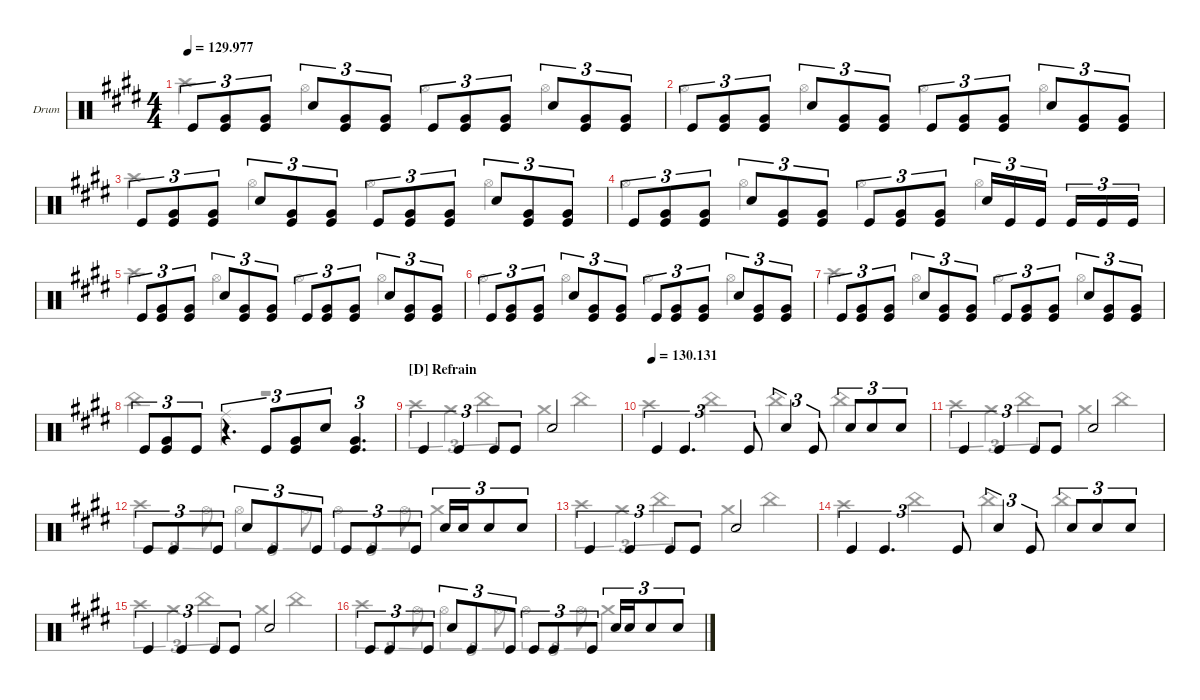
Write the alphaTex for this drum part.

\defaultSystemsLayout 4
\hideDynamics
\bracketExtendMode nobrackets
\firstSystemTrackNameOrientation horizontal
\otherSystemsTrackNameOrientation horizontal
\track ("BATTERIE" "Drum") {defaultSystemsLayout 4 instrument percussion}
\staff {score}
\articulation defaults
\voice
\ts (4 4)
\tempo
129.977
\accidentals auto
\clef neutral
\ottava regular
\simile none
\ks e "Kick (hit)".8{tu (3 2) dy mf}
("Kick (hit)" "Very Low Tom (hit)").8{tu (3 2)} ("Kick (hit)" "Very Low Tom (hit)").8{tu (3 2)} "Snare (hit) 2".8{tu (3 2)} ("Kick (hit)" "Very Low Tom (hit)").8{tu (3 2)} ("Kick (hit)" "Very Low Tom (hit)").8{tu (3 2)} "Kick (hit)".8{tu (3 2)} ("Kick (hit)" "Very Low Tom (hit)").8{tu (3 2)} ("Kick (hit)" "Very Low Tom (hit)").8{tu (3 2)} "Snare (hit) 2".8{tu (3 2)} ("Kick (hit)" "Very Low Tom (hit)").8{tu (3 2)} ("Kick (hit)" "Very Low Tom (hit)").8{tu (3 2)} |
"Kick (hit)".8{tu (3 2)} ("Kick (hit)" "Very Low Tom (hit)").8{tu (3 2)} ("Kick (hit)" "Very Low Tom (hit)").8{tu (3 2)} "Snare (hit) 2".8{tu (3 2)} ("Kick (hit)" "Very Low Tom (hit)").8{tu (3 2)} ("Kick (hit)" "Very Low Tom (hit)").8{tu (3 2)} "Kick (hit)".8{tu (3 2)} ("Kick (hit)" "Very Low Tom (hit)").8{tu (3 2)} ("Kick (hit)" "Very Low Tom (hit)").8{tu (3 2)} "Snare (hit) 2".8{tu (3 2)} ("Kick (hit)" "Very Low Tom (hit)").8{tu (3 2)} ("Kick (hit)" "Very Low Tom (hit)").8{tu (3 2)} |
"Kick (hit)".8{tu (3 2)} ("Kick (hit)" "Very Low Tom (hit)").8{tu (3 2)} ("Kick (hit)" "Very Low Tom (hit)").8{tu (3 2)} "Snare (hit) 2".8{tu (3 2)} ("Kick (hit)" "Very Low Tom (hit)").8{tu (3 2)} ("Kick (hit)" "Very Low Tom (hit)").8{tu (3 2)} "Kick (hit)".8{tu (3 2)} ("Kick (hit)" "Very Low Tom (hit)").8{tu (3 2)} ("Kick (hit)" "Very Low Tom (hit)").8{tu (3 2)} "Snare (hit) 2".8{tu (3 2)} ("Kick (hit)" "Very Low Tom (hit)").8{tu (3 2)} ("Kick (hit)" "Very Low Tom (hit)").8{tu (3 2)} |
"Kick (hit)".8{tu (3 2)} ("Kick (hit)" "Very Low Tom (hit)").8{tu (3 2)} ("Kick (hit)" "Very Low Tom (hit)").8{tu (3 2)} "Snare (hit) 2".8{tu (3 2)} ("Kick (hit)" "Very Low Tom (hit)").8{tu (3 2)} ("Kick (hit)" "Very Low Tom (hit)").8{tu (3 2)} "Kick (hit)".8{tu (3 2)} ("Kick (hit)" "Very Low Tom (hit)").8{tu (3 2)} ("Kick (hit)" "Very Low Tom (hit)").8{tu (3 2)} "Snare (hit) 2".16{tu (3 2)} "Kick (hit)".16{tu (3 2)} "Kick (hit)".16{tu (3 2)} "Kick (hit)".16{tu (3 2)} "Kick (hit)".16{tu (3 2)} "Kick (hit)".16{tu (3 2)} |
"Kick (hit)".8{tu (3 2)} ("Kick (hit)" "Very Low Tom (hit)").8{tu (3 2)} ("Kick (hit)" "Very Low Tom (hit)").8{tu (3 2)} "Snare (hit) 2".8{tu (3 2)} ("Kick (hit)" "Very Low Tom (hit)").8{tu (3 2)} ("Kick (hit)" "Very Low Tom (hit)").8{tu (3 2)} "Kick (hit)".8{tu (3 2)} ("Kick (hit)" "Very Low Tom (hit)").8{tu (3 2)} ("Kick (hit)" "Very Low Tom (hit)").8{tu (3 2)} "Snare (hit) 2".8{tu (3 2)} ("Kick (hit)" "Very Low Tom (hit)").8{tu (3 2)} ("Kick (hit)" "Very Low Tom (hit)").8{tu (3 2)} |
"Kick (hit)".8{tu (3 2)} ("Kick (hit)" "Very Low Tom (hit)").8{tu (3 2)} ("Kick (hit)" "Very Low Tom (hit)").8{tu (3 2)} "Snare (hit) 2".8{tu (3 2)} ("Kick (hit)" "Very Low Tom (hit)").8{tu (3 2)} ("Kick (hit)" "Very Low Tom (hit)").8{tu (3 2)} "Kick (hit)".8{tu (3 2)} ("Kick (hit)" "Very Low Tom (hit)").8{tu (3 2)} ("Kick (hit)" "Very Low Tom (hit)").8{tu (3 2)} "Snare (hit) 2".8{tu (3 2)} ("Kick (hit)" "Very Low Tom (hit)").8{tu (3 2)} ("Kick (hit)" "Very Low Tom (hit)").8{tu (3 2)} |
"Kick (hit)".8{tu (3 2)} ("Kick (hit)" "Very Low Tom (hit)").8{tu (3 2)} ("Kick (hit)" "Very Low Tom (hit)").8{tu (3 2)} "Snare (hit) 2".8{tu (3 2)} ("Kick (hit)" "Very Low Tom (hit)").8{tu (3 2)} ("Kick (hit)" "Very Low Tom (hit)").8{tu (3 2)} "Kick (hit)".8{tu (3 2)} ("Kick (hit)" "Very Low Tom (hit)").8{tu (3 2)} ("Kick (hit)" "Very Low Tom (hit)").8{tu (3 2)} "Snare (hit) 2".8{tu (3 2)} ("Kick (hit)" "Very Low Tom (hit)").8{tu (3 2)} ("Kick (hit)" "Very Low Tom (hit)").8{tu (3 2)} |
"Kick (hit)".8{tu (3 2)} ("Kick (hit)" "Very Low Tom (hit)").8{tu (3 2)} "Kick (hit)".8{tu (3 2)} r.4{d tu (3 2)} "Kick (hit)".8{tu (3 2)} ("Kick (hit)" "Very Low Tom (hit)").8{tu (3 2)} "Snare (hit) 2".8{tu (3 2)} ("Kick (hit)" "Very Low Tom (hit)").4{d tu (3 2)} |
\section ("D" "Refrain")
"Kick (hit)".4{tu (3 2)} "Kick (hit)".4{tu (3 2)} "Kick (hit)".8{tu (3 2)} "Kick (hit)".8{tu (3 2)} "Snare (hit) 2".2 |
\tempo (130.131)
"Kick (hit)".4{tu (3 2)} "Kick (hit)".4{d tu (3 2)} "Kick (hit)".8{tu (3 2)} "Snare (hit) 2".4{tu (3 2)} "Kick (hit)".8{tu (3 2)} "Snare (hit) 2".8{tu (3 2)} "Snare (hit) 2".8{tu (3 2)} "Snare (hit) 2".8{tu (3 2)} |
"Kick (hit)".4{tu (3 2)} "Kick (hit)".4{tu (3 2)} "Kick (hit)".8{tu (3 2)} "Kick (hit)".8{tu (3 2)} "Snare (hit) 2".2 |
"Kick (hit)".8{tu (3 2)} "Kick (hit)".8{tu (3 2)} "Kick (hit)".8{tu (3 2)} "Snare (hit) 2".8{tu (3 2)} "Kick (hit)".8{tu (3 2)} "Kick (hit)".8{tu (3 2)} "Kick (hit)".8{tu (3 2)} "Kick (hit)".8{tu (3 2)} "Kick (hit)".8{tu (3 2)} "Snare (hit) 2".16{tu (3 2)} "Snare (hit) 2".16{tu (3 2)} "Snare (hit) 2".8{tu (3 2)} "Snare (hit) 2".8{tu (3 2)} |
"Kick (hit)".4{tu (3 2)} "Kick (hit)".4{tu (3 2)} "Kick (hit)".8{tu (3 2)} "Kick (hit)".8{tu (3 2)} "Snare (hit) 2".2 |
"Kick (hit)".4{tu (3 2)} "Kick (hit)".4{d tu (3 2)} "Kick (hit)".8{tu (3 2)} "Snare (hit) 2".4{tu (3 2)} "Kick (hit)".8{tu (3 2)} "Snare (hit) 2".8{tu (3 2)} "Snare (hit) 2".8{tu (3 2)} "Snare (hit) 2".8{tu (3 2)} |
"Kick (hit)".4{tu (3 2)} "Kick (hit)".4{tu (3 2)} "Kick (hit)".8{tu (3 2)} "Kick (hit)".8{tu (3 2)} "Snare (hit) 2".2 |
"Kick (hit)".8{tu (3 2)} "Kick (hit)".8{tu (3 2)} "Kick (hit)".8{tu (3 2)} "Snare (hit) 2".8{tu (3 2)} "Kick (hit)".8{tu (3 2)} "Kick (hit)".8{tu (3 2)} "Kick (hit)".8{tu (3 2)} "Kick (hit)".8{tu (3 2)} "Kick (hit)".8{tu (3 2)} "Snare (hit) 2".16{tu (3 2)} "Snare (hit) 2".16{tu (3 2)} "Snare (hit) 2".8{tu (3 2)} "Snare (hit) 2".8{tu (3 2)}
\voice
\clef neutral
\ottava regular
\simile none
\ks e "Crash high (hit)".4{dy mf} "Hi-Hat (open)".4 "Hi-Hat (open)".4 "Hi-Hat (open)".4
|
"Hi-Hat (open)".4 "Hi-Hat (open)".4 "Hi-Hat (open)".4 "Hi-Hat (open)".4 |
"Crash high (hit)".4 "Hi-Hat (open)".4 "Hi-Hat (open)".4 "Hi-Hat (open)".4 |
"Hi-Hat (open)".4 "Hi-Hat (open)".4 "Hi-Hat (open)".4 "Hi-Hat (open)".4 |
"Crash high (hit)".4 "Hi-Hat (open)".4 "Hi-Hat (open)".4 "Hi-Hat (open)".4 |
"Hi-Hat (open)".4 "Hi-Hat (open)".4 "Hi-Hat (open)".4 "Hi-Hat (open)".4 |
"Crash high (hit)".4 "Hi-Hat (open)".4 "Hi-Hat (open)".4 "Hi-Hat (open)".4 |
"China (hit)".4 "Ride (middle)".4 r.2 |
"Crash high (hit)".4{tu (3 2)} "Crash medium (hit)".4{tu (3 2)} "China (hit)".4{tu (3 2)} "Crash medium (hit)".4 "China (hit)".4 |
"Crash high (hit)".4 "China (hit)".4 "China (hit)".4 "China (hit)".4 |
"Crash high (hit)".4{tu (3 2)} "Crash medium (hit)".4{tu (3 2)} "China (hit)".4{tu (3 2)} "Crash medium (hit)".4 "China (hit)".4 |
"Crash high (hit)".4{tu (3 2)} "Hi-Hat (open)".8{tu (3 2)} "Hi-Hat (open)".4{tu (3 2)} "Hi-Hat (open)".8{tu (3 2)} "Hi-Hat (open)".4{tu (3 2)} "Hi-Hat (open)".8{tu (3 2)} "Crash medium (hit)".4 |
"Crash high (hit)".4{tu (3 2)} "Crash medium (hit)".4{tu (3 2)} "China (hit)".4{tu (3 2)} "Crash medium (hit)".4 "China (hit)".4 |
"Crash high (hit)".4 "China (hit)".4 "China (hit)".4 "China (hit)".4 |
"Crash high (hit)".4{tu (3 2)} "Crash medium (hit)".4{tu (3 2)} "China (hit)".4{tu (3 2)} "Crash medium (hit)".4 "China (hit)".4 |
"Crash high (hit)".4{tu (3 2)} "Hi-Hat (open)".8{tu (3 2)} "Hi-Hat (open)".4{tu (3 2)} "Hi-Hat (open)".8{tu (3 2)} "Hi-Hat (open)".4{tu (3 2)} "Hi-Hat (open)".8{tu (3 2)} "Crash medium (hit)".4
